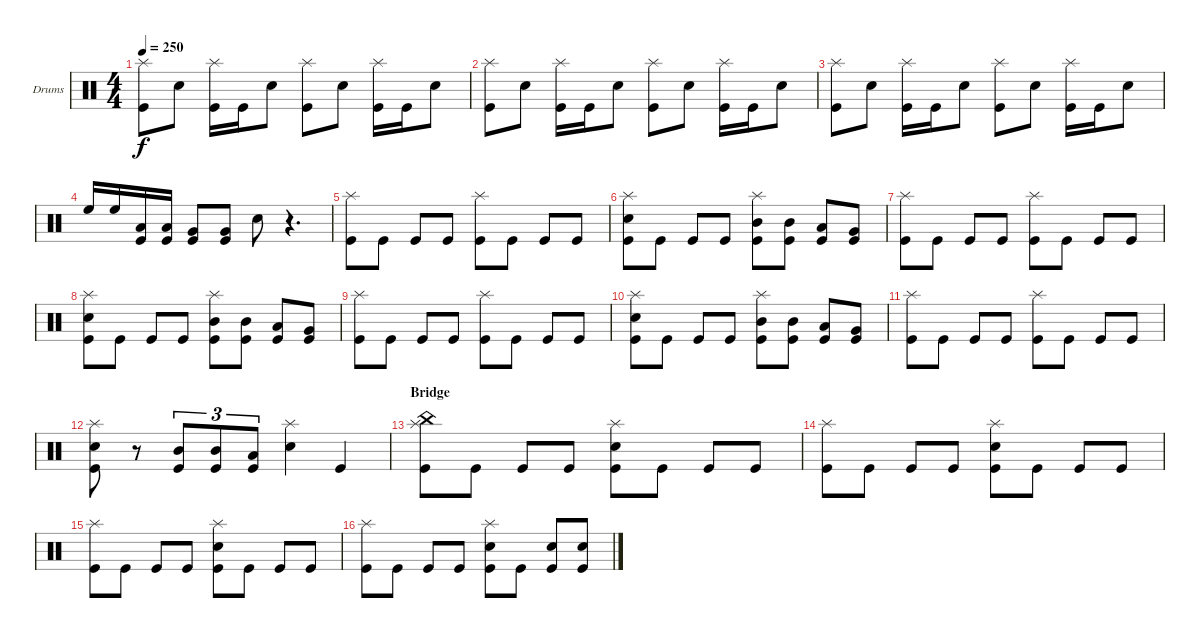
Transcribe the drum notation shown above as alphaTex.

\defaultSystemsLayout 4
\bracketExtendMode groupsimilarinstruments
\firstSystemTrackNameOrientation horizontal
\otherSystemsTrackNameOrientation horizontal
\track ("Drumkit" "Drums") {instrument percussion}
\staff {score}
\articulation defaults
\ts (4 4)
\tempo 250
\clef neutral
\ks c
("Splash (hit)" "Kick (hit)").8{dy f} "Snare (hit) 2".8 ("Splash (hit)" "Kick (hit)").16 "Kick (hit)".16 "Snare (hit) 2".8 ("Splash (hit)" "Kick (hit)").8 "Snare (hit) 2".8 ("Splash (hit)" "Kick (hit)").16 "Kick (hit)".16 "Snare (hit) 2".8 |
("Splash (hit)" "Kick (hit)").8 "Snare (hit) 2".8 ("Splash (hit)" "Kick (hit)").16 "Kick (hit)".16 "Snare (hit) 2".8 ("Splash (hit)" "Kick (hit)").8 "Snare (hit) 2".8 ("Splash (hit)" "Kick (hit)").16 "Kick (hit)".16 "Snare (hit) 2".8 |
("Splash (hit)" "Kick (hit)").8 "Snare (hit) 2".8 ("Splash (hit)" "Kick (hit)").16 "Kick (hit)".16 "Snare (hit) 2".8 ("Splash (hit)" "Kick (hit)").8 "Snare (hit) 2".8 ("Splash (hit)" "Kick (hit)").16 "Kick (hit)".16 "Snare (hit) 2".8 |
"High Floor Tom (hit)".16 "High Floor Tom (hit)".16 ("Low Tom (hit)" "Kick (hit)").16 ("Low Tom (hit)" "Kick (hit)").16 ("Very Low Tom (hit)" "Kick (hit)").8 ("Very Low Tom (hit)" "Kick (hit)").8 "Snare (hit) 2".8 r.4{d} |
("Kick (hit)" "Splash (hit)").8 "Kick (hit)".8 "Kick (hit)".8 "Kick (hit)".8 ("Kick (hit)" "Splash (hit)").8 "Kick (hit)".8 "Kick (hit)".8 "Kick (hit)".8 |
("Kick (hit)" "Splash (hit)" "Snare (hit) 2").8 "Kick (hit)".8 "Kick (hit)".8 "Kick (hit)".8 ("Kick (hit)" "Splash (hit)" "Mid Tom (hit)").8 ("Kick (hit)" "Mid Tom (hit)").8 ("Kick (hit)" "Low Tom (hit)").8 ("Kick (hit)" "Very Low Tom (hit)").8 |
("Kick (hit)" "Splash (hit)").8 "Kick (hit)".8 "Kick (hit)".8 "Kick (hit)".8 ("Kick (hit)" "Splash (hit)").8 "Kick (hit)".8 "Kick (hit)".8 "Kick (hit)".8 |
("Kick (hit)" "Splash (hit)" "Snare (hit) 2").8 "Kick (hit)".8 "Kick (hit)".8 "Kick (hit)".8 ("Kick (hit)" "Splash (hit)" "Mid Tom (hit)").8 ("Kick (hit)" "Mid Tom (hit)").8 ("Kick (hit)" "Low Tom (hit)").8 ("Kick (hit)" "Very Low Tom (hit)").8 |
("Kick (hit)" "Splash (hit)").8 "Kick (hit)".8 "Kick (hit)".8 "Kick (hit)".8 ("Kick (hit)" "Splash (hit)").8 "Kick (hit)".8 "Kick (hit)".8 "Kick (hit)".8 |
("Kick (hit)" "Splash (hit)" "Snare (hit) 2").8 "Kick (hit)".8 "Kick (hit)".8 "Kick (hit)".8 ("Kick (hit)" "Splash (hit)" "Mid Tom (hit)").8 ("Kick (hit)" "Mid Tom (hit)").8 ("Kick (hit)" "Low Tom (hit)").8 ("Kick (hit)" "Very Low Tom (hit)").8 |
("Kick (hit)" "Splash (hit)").8 "Kick (hit)".8 "Kick (hit)".8 "Kick (hit)".8 ("Kick (hit)" "Splash (hit)").8 "Kick (hit)".8 "Kick (hit)".8 "Kick (hit)".8 |
("Kick (hit)" "Splash (hit)" "Snare (hit) 2").8 r.8 ("Kick (hit)" "Mid Tom (hit)").8{tu (3 2)} ("Kick (hit)" "Mid Tom (hit)").8{tu (3 2)} ("Kick (hit)" "Low Tom (hit)").8{tu (3 2)} ("Snare (hit) 2" "Splash (hit)").4 "Kick (hit)".4 |
\section ("" "Bridge")
("Kick (hit)" "Splash (hit)" "China (hit)").8 "Kick (hit)".8 "Kick (hit)".8 "Kick (hit)".8 ("Kick (hit)" "Splash (hit)" "Snare (hit) 2").8 "Kick (hit)".8 "Kick (hit)".8 "Kick (hit)".8 |
("Kick (hit)" "Splash (hit)").8 "Kick (hit)".8 "Kick (hit)".8 "Kick (hit)".8 ("Kick (hit)" "Splash (hit)" "Snare (hit) 2").8 "Kick (hit)".8 "Kick (hit)".8 "Kick (hit)".8 |
("Kick (hit)" "Splash (hit)").8 "Kick (hit)".8 "Kick (hit)".8 "Kick (hit)".8 ("Kick (hit)" "Splash (hit)" "Snare (hit) 2").8 "Kick (hit)".8 "Kick (hit)".8 "Kick (hit)".8 |
("Kick (hit)" "Splash (hit)").8 "Kick (hit)".8 "Kick (hit)".8 "Kick (hit)".8 ("Kick (hit)" "Splash (hit)" "Snare (hit) 2").8 "Kick (hit)".8 ("Kick (hit)" "Snare (hit) 2").8 ("Kick (hit)" "Snare (hit) 2").8
